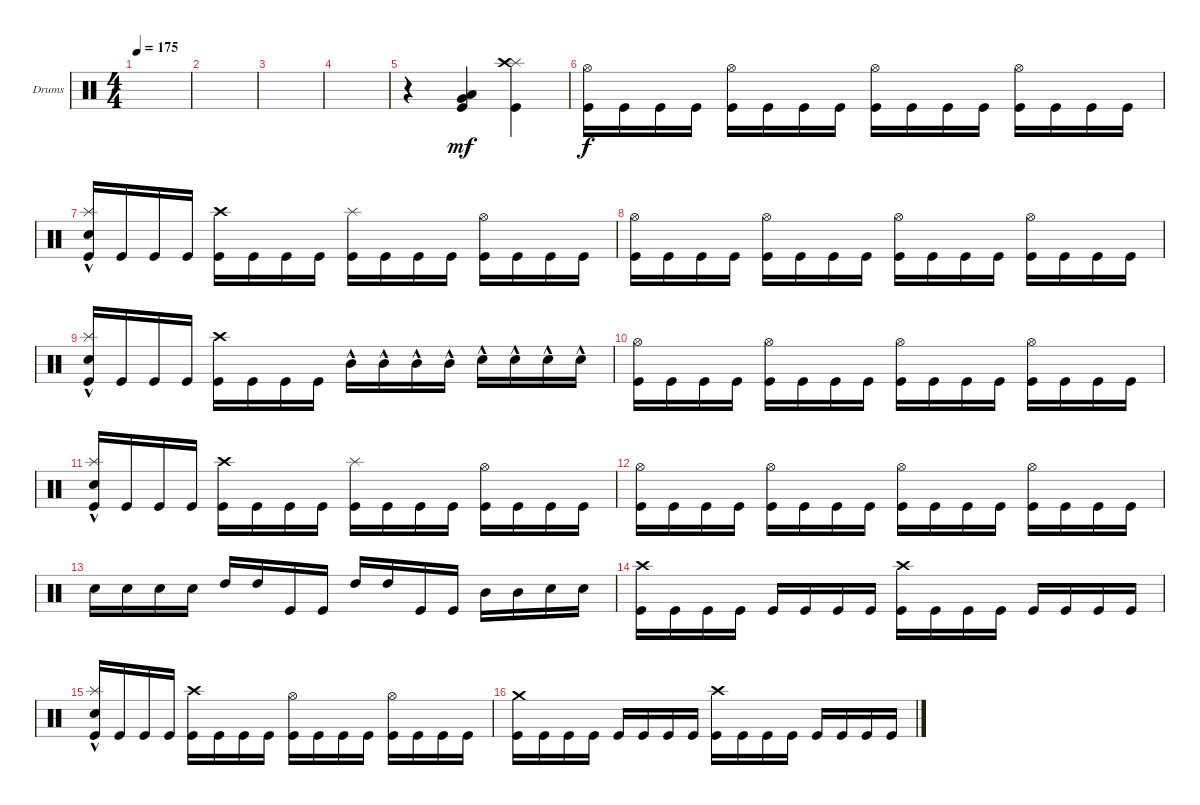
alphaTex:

\defaultSystemsLayout 4
\bracketExtendMode groupsimilarinstruments
\firstSystemTrackNameOrientation horizontal
\otherSystemsTrackNameOrientation horizontal
\track ("Drumkit" "Drums") {instrument percussion}
\staff {score}
\articulation defaults
\ts (4 4)
\tempo 175
\clef neutral
\scale
0.333333
\ks c
|
\scale
0.333333 |
\scale
0.333333 |
\scale
0.333333 |
\scale
0.333333 r.4 ("Kick (hit)" "Very Low Tom (hit)" "Low Tom (hit)").4{dy mf} ("Splash (hit)" "Crash high (hit)" "Kick (hit)").4 |
\scale
0.333333 ("Kick (hit)" "Hi-Hat (open)").16{dy f} "Kick (hit)".16 "Kick (hit)".16 "Kick (hit)".16 ("Kick (hit)" "Hi-Hat (open)").16 "Kick (hit)".16 "Kick (hit)".16 "Kick (hit)".16 ("Kick (hit)" "Hi-Hat (open)").16 "Kick (hit)".16 "Kick (hit)".16 "Kick (hit)".16 ("Kick (hit)" "Hi-Hat (open)").16 "Kick (hit)".16 "Kick (hit)".16 "Kick (hit)".16 |
\scale
0.333333 ("Kick (hit)" "Snare (hit) 2"{hac} "Splash (hit)").16 "Kick (hit)".16 "Kick (hit)".16 "Kick (hit)".16 ("Kick (hit)" "Crash high (hit)").16 "Kick (hit)".16 "Kick (hit)".16 "Kick (hit)".16 ("Kick (hit)" "Splash (hit)").16 "Kick (hit)".16 "Kick (hit)".16 "Kick (hit)".16 ("Kick (hit)" "Hi-Hat (open)").16 "Kick (hit)".16 "Kick (hit)".16 "Kick (hit)".16 |
\scale
0.333333 ("Kick (hit)" "Hi-Hat (open)").16 "Kick (hit)".16 "Kick (hit)".16 "Kick (hit)".16 ("Kick (hit)" "Hi-Hat (open)").16 "Kick (hit)".16 "Kick (hit)".16 "Kick (hit)".16 ("Kick (hit)" "Hi-Hat (open)").16 "Kick (hit)".16 "Kick (hit)".16 "Kick (hit)".16 ("Kick (hit)" "Hi-Hat (open)").16 "Kick (hit)".16 "Kick (hit)".16 "Kick (hit)".16 |
\scale
0.333333 ("Kick (hit)" "Snare (hit) 2"{hac} "Splash (hit)").16 "Kick (hit)".16 "Kick (hit)".16 "Kick (hit)".16 ("Kick (hit)" "Crash high (hit)").16 "Kick (hit)".16 "Kick (hit)".16 "Kick (hit)".16 "Mid Tom (hit)"{hac}.16 "Mid Tom (hit)"{hac}.16 "Mid Tom (hit)"{hac}.16 "Mid Tom (hit)"{hac}.16 "Snare (hit) 2"{hac}.16 "Snare (hit) 2"{hac}.16 "Snare (hit) 2"{hac}.16 "Snare (hit) 2"{hac}.16 |
\scale
0.333333 ("Kick (hit)" "Hi-Hat (open)").16 "Kick (hit)".16 "Kick (hit)".16 "Kick (hit)".16 ("Kick (hit)" "Hi-Hat (open)").16 "Kick (hit)".16 "Kick (hit)".16 "Kick (hit)".16 ("Kick (hit)" "Hi-Hat (open)").16 "Kick (hit)".16 "Kick (hit)".16 "Kick (hit)".16 ("Kick (hit)" "Hi-Hat (open)").16 "Kick (hit)".16 "Kick (hit)".16 "Kick (hit)".16 |
\scale
0.333333 ("Kick (hit)" "Snare (hit) 2"{hac} "Splash (hit)").16 "Kick (hit)".16 "Kick (hit)".16 "Kick (hit)".16 ("Kick (hit)" "Crash high (hit)").16 "Kick (hit)".16 "Kick (hit)".16 "Kick (hit)".16 ("Kick (hit)" "Splash (hit)").16 "Kick (hit)".16 "Kick (hit)".16 "Kick (hit)".16 ("Kick (hit)" "Hi-Hat (open)").16 "Kick (hit)".16 "Kick (hit)".16 "Kick (hit)".16 |
\scale
0.333333 ("Kick (hit)" "Hi-Hat (open)").16 "Kick (hit)".16 "Kick (hit)".16 "Kick (hit)".16 ("Kick (hit)" "Hi-Hat (open)").16 "Kick (hit)".16 "Kick (hit)".16 "Kick (hit)".16 ("Kick (hit)" "Hi-Hat (open)").16 "Kick (hit)".16 "Kick (hit)".16 "Kick (hit)".16 ("Kick (hit)" "Hi-Hat (open)").16 "Kick (hit)".16 "Kick (hit)".16 "Kick (hit)".16 |
\scale
0.333333 "Snare (hit) 2".16 "Snare (hit) 2".16 "Snare (hit) 2".16 "Snare (hit) 2".16 "High Tom (hit)".16 "High Tom (hit)".16 "Kick (hit)".16 "Kick (hit)".16 "High Tom (hit)".16 "High Tom (hit)".16 "Kick (hit)".16 "Kick (hit)".16 "Mid Tom (hit)".16 "Mid Tom (hit)".16 "Snare (hit) 2".16 "Snare (hit) 2".16 |
\scale
0.333333 ("Kick (hit)" "Crash high (hit)").16 "Kick (hit)".16 "Kick (hit)".16 "Kick (hit)".16 "Kick (hit)".16 "Kick (hit)".16 "Kick (hit)".16 "Kick (hit)".16 ("Kick (hit)" "Crash high (hit)").16 "Kick (hit)".16 "Kick (hit)".16 "Kick (hit)".16 "Kick (hit)".16 "Kick (hit)".16 "Kick (hit)".16 "Kick (hit)".16 |
\scale
0.333333 ("Kick (hit)" "Snare (hit) 2"{hac} "Splash (hit)").16 "Kick (hit)".16 "Kick (hit)".16 "Kick (hit)".16 ("Kick (hit)" "Crash high (hit)").16 "Kick (hit)".16 "Kick (hit)".16 "Kick (hit)".16 ("Kick (hit)" "Hi-Hat (open)").16 "Kick (hit)".16 "Kick (hit)".16 "Kick (hit)".16 ("Kick (hit)" "Hi-Hat (open)").16 "Kick (hit)".16 "Kick (hit)".16 "Kick (hit)".16 |
\scale
0.333333 ("Kick (hit)" "Crash medium (hit)").16 "Kick (hit)".16 "Kick (hit)".16 "Kick (hit)".16 "Kick (hit)".16 "Kick (hit)".16 "Kick (hit)".16 "Kick (hit)".16 ("Kick (hit)" "Crash high (hit)").16 "Kick (hit)".16 "Kick (hit)".16 "Kick (hit)".16 "Kick (hit)".16 "Kick (hit)".16 "Kick (hit)".16 "Kick (hit)".16
